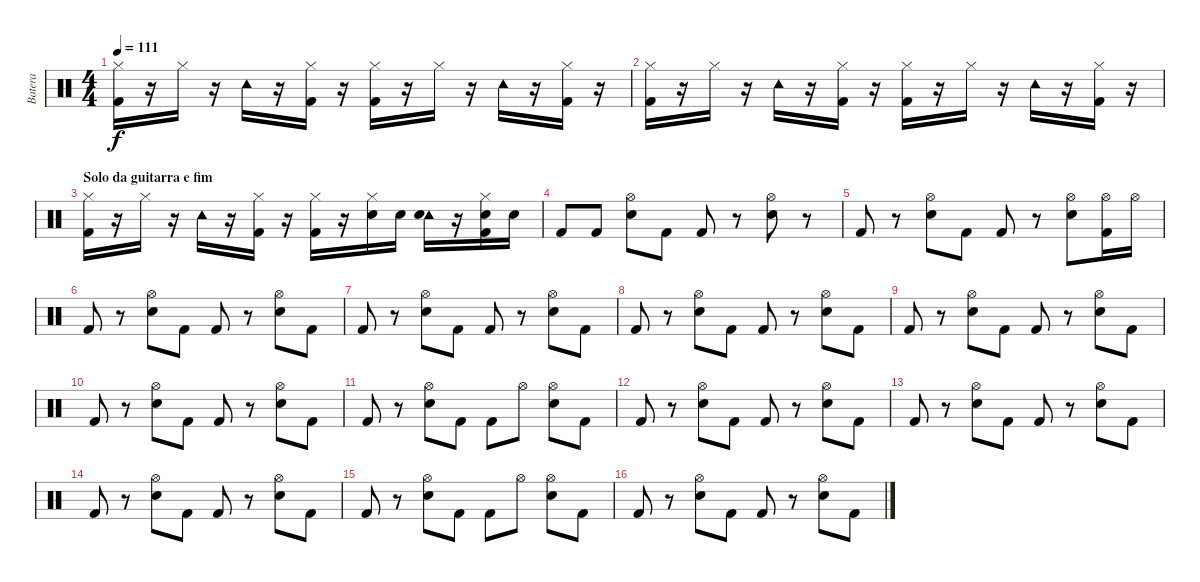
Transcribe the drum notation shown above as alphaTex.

\track ("Batera" "Batera") {instrument percussion}
\staff {score}
\articulation defaults
\ts (4 4)
\tempo 111
\clef neutral
\ks c
("Hi-Hat (closed)" "Kick (hit) 2").16{dy f} r.16 "Hi-Hat (closed)".16 r.16 "Tambourine (hit)".16 r.16 ("Hi-Hat (closed)" "Kick (hit) 2").16 r.16 ("Hi-Hat (closed)" "Kick (hit) 2").16 r.16 "Hi-Hat (closed)".16 r.16 "Tambourine (hit)".16 r.16 ("Hi-Hat (closed)" "Kick (hit) 2").16 r.16 |
("Hi-Hat (closed)" "Kick (hit) 2").16 r.16 "Hi-Hat (closed)".16 r.16 "Tambourine (hit)".16 r.16 ("Hi-Hat (closed)" "Kick (hit) 2").16 r.16 ("Hi-Hat (closed)" "Kick (hit) 2").16 r.16 "Hi-Hat (closed)".16 r.16 "Tambourine (hit)".16 r.16 ("Hi-Hat (closed)" "Kick (hit) 2").16 r.16 |
\section ("" "Solo da guitarra e fim")
("Hi-Hat (closed)" "Kick (hit) 2").16 r.16 "Hi-Hat (closed)".16 r.16 "Tambourine (hit)".16 r.16 ("Hi-Hat (closed)" "Kick (hit) 2").16 r.16 ("Hi-Hat (closed)" "Kick (hit) 2").16 r.16 ("Hi-Hat (closed)" "Snare (hit) 2").16 "Snare (hit) 2".16 ("Tambourine (hit)" "Snare (hit) 2").16 r.16 ("Hi-Hat (closed)" "Snare (hit) 2" "Kick (hit) 2").16 "Snare (hit) 2".16 |
"Kick (hit) 2".8 "Kick (hit) 2".8 ("Hi-Hat (open)" "Snare (hit) 2").8 "Kick (hit) 2".8 "Kick (hit) 2".8 r.8 ("Hi-Hat (open)" "Snare (hit) 2").8 r.8 |
"Kick (hit) 2".8 r.8 ("Hi-Hat (open)" "Snare (hit) 2").8 "Kick (hit) 2".8 "Kick (hit) 2".8 r.8 ("Hi-Hat (open)" "Snare (hit) 2").8 ("Hi-Hat (open)" "Kick (hit) 2").16 "Hi-Hat (open)".16 |
"Kick (hit) 2".8 r.8 ("Hi-Hat (open)" "Snare (hit) 2").8 "Kick (hit) 2".8 "Kick (hit) 2".8 r.8 ("Hi-Hat (open)" "Snare (hit) 2").8 "Kick (hit) 2".8 |
"Kick (hit) 2".8 r.8 ("Hi-Hat (open)" "Snare (hit) 2").8 "Kick (hit) 2".8 "Kick (hit) 2".8 r.8 ("Hi-Hat (open)" "Snare (hit) 2").8 "Kick (hit) 2".8 |
"Kick (hit) 2".8 r.8 ("Hi-Hat (open)" "Snare (hit) 2").8 "Kick (hit) 2".8 "Kick (hit) 2".8 r.8 ("Hi-Hat (open)" "Snare (hit) 2").8 "Kick (hit) 2".8 |
"Kick (hit) 2".8 r.8 ("Hi-Hat (open)" "Snare (hit) 2").8 "Kick (hit) 2".8 "Kick (hit) 2".8 r.8 ("Hi-Hat (open)" "Snare (hit) 2").8 "Kick (hit) 2".8 |
"Kick (hit) 2".8 r.8 ("Hi-Hat (open)" "Snare (hit) 2").8 "Kick (hit) 2".8 "Kick (hit) 2".8 r.8 ("Hi-Hat (open)" "Snare (hit) 2").8 "Kick (hit) 2".8 |
"Kick (hit) 2".8 r.8 ("Hi-Hat (open)" "Snare (hit) 2").8 "Kick (hit) 2".8 "Kick (hit) 2".8 "Hi-Hat (open)".8 ("Hi-Hat (open)" "Snare (hit) 2").8 "Kick (hit) 2".8 |
"Kick (hit) 2".8 r.8 ("Hi-Hat (open)" "Snare (hit) 2").8 "Kick (hit) 2".8 "Kick (hit) 2".8 r.8 ("Hi-Hat (open)" "Snare (hit) 2").8 "Kick (hit) 2".8 |
"Kick (hit) 2".8 r.8 ("Hi-Hat (open)" "Snare (hit) 2").8 "Kick (hit) 2".8 "Kick (hit) 2".8 r.8 ("Hi-Hat (open)" "Snare (hit) 2").8 "Kick (hit) 2".8 |
"Kick (hit) 2".8 r.8 ("Hi-Hat (open)" "Snare (hit) 2").8 "Kick (hit) 2".8 "Kick (hit) 2".8 r.8 ("Hi-Hat (open)" "Snare (hit) 2").8 "Kick (hit) 2".8 |
"Kick (hit) 2".8 r.8 ("Hi-Hat (open)" "Snare (hit) 2").8 "Kick (hit) 2".8 "Kick (hit) 2".8 "Hi-Hat (open)".8 ("Hi-Hat (open)" "Snare (hit) 2").8 "Kick (hit) 2".8 |
"Kick (hit) 2".8 r.8 ("Hi-Hat (open)" "Snare (hit) 2").8 "Kick (hit) 2".8 "Kick (hit) 2".8 r.8 ("Hi-Hat (open)" "Snare (hit) 2").8 "Kick (hit) 2".8
